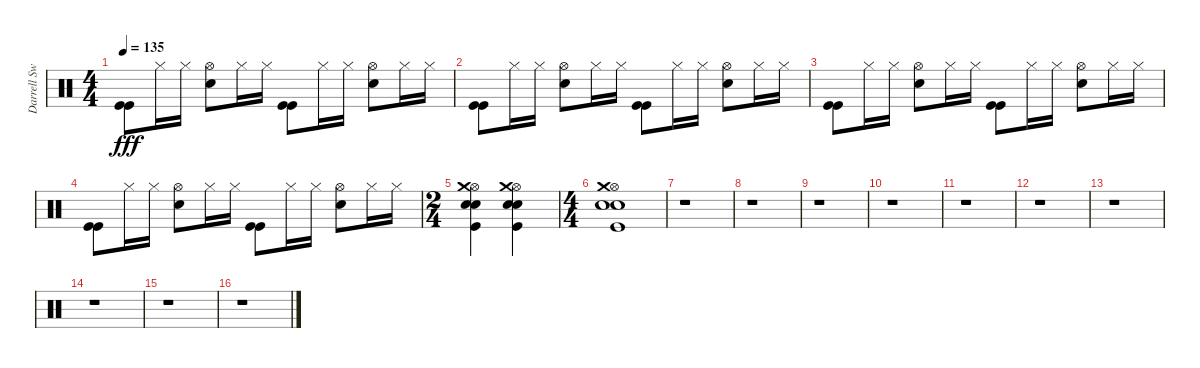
\track ("Darrell Sweet (drums)" "Darrell Sw") {instrument percussion}
\staff {score}
\articulation defaults
\ts (4 4)
\tempo 135
\clef neutral
\ks c
("Kick (hit)" "Kick (hit)").8{dy fff} "Hi-Hat (closed)".16 "Hi-Hat (closed)".16 ("Snare (hit) 2" "Hi-Hat (open)").8 "Hi-Hat (closed)".16 "Hi-Hat (closed)".16 ("Kick (hit)" "Kick (hit)").8 "Hi-Hat (closed)".16 "Hi-Hat (closed)".16 ("Snare (hit) 2" "Hi-Hat (open)").8 "Hi-Hat (closed)".16 "Hi-Hat (closed)".16 |
("Kick (hit)" "Kick (hit)").8 "Hi-Hat (closed)".16 "Hi-Hat (closed)".16 ("Snare (hit) 2" "Hi-Hat (open)").8 "Hi-Hat (closed)".16 "Hi-Hat (closed)".16 ("Kick (hit)" "Kick (hit)").8 "Hi-Hat (closed)".16 "Hi-Hat (closed)".16 ("Snare (hit) 2" "Hi-Hat (open)").8 "Hi-Hat (closed)".16 "Hi-Hat (closed)".16 |
("Kick (hit)" "Kick (hit)").8 "Hi-Hat (closed)".16 "Hi-Hat (closed)".16 ("Snare (hit) 2" "Hi-Hat (open)").8 "Hi-Hat (closed)".16 "Hi-Hat (closed)".16 ("Kick (hit)" "Kick (hit)").8 "Hi-Hat (closed)".16 "Hi-Hat (closed)".16 ("Snare (hit) 2" "Hi-Hat (open)").8 "Hi-Hat (closed)".16 "Hi-Hat (closed)".16 |
("Kick (hit)" "Kick (hit)").8 "Hi-Hat (closed)".16 "Hi-Hat (closed)".16 ("Snare (hit) 2" "Hi-Hat (open)").8 "Hi-Hat (closed)".16 "Hi-Hat (closed)".16 ("Kick (hit)" "Kick (hit)").8 "Hi-Hat (closed)".16 "Hi-Hat (closed)".16 ("Snare (hit) 2" "Hi-Hat (open)").8 "Hi-Hat (closed)".16 "Hi-Hat (closed)".16 |
\ts (2 4)
("Snare (hit) 2" "Electric Snare (hit)" "Hi-Hat (open)" "Kick (hit)" "Crash medium (hit)").4 ("Snare (hit) 2" "Electric Snare (hit)" "Hi-Hat (open)" "Kick (hit)" "Crash medium (hit)").4 |
\ts (4 4)
("Snare (hit) 2" "Electric Snare (hit)" "Hi-Hat (open)" "Kick (hit)" "Crash medium (hit)").1 |
r.1 |
r.1 |
r.1 |
r.1 |
r.1 |
r.1 |
r.1 |
r.1 |
r.1 |
r.1
